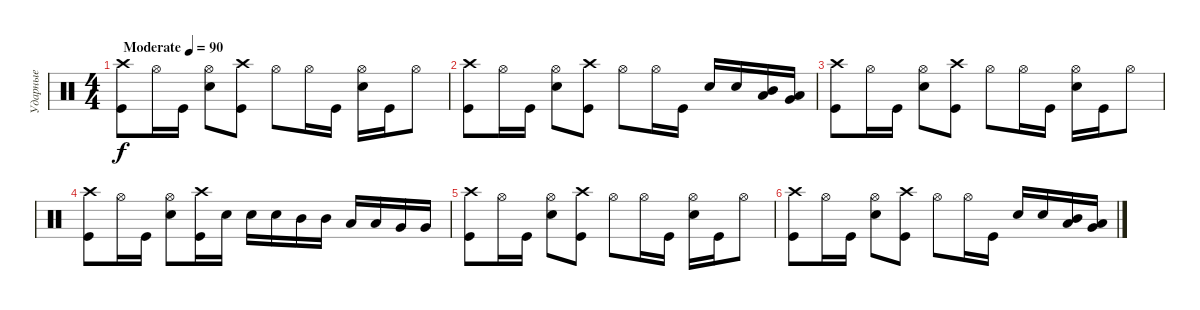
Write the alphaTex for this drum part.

\track ("Ударные" "Ударные") {instrument percussion}
\staff {score}
\articulation defaults
\ts (4 4)
\tempo (90 "Moderate")
\clef neutral
\ks c
("Kick (hit)" "Crash high (hit)").8{dy f} "Hi-Hat (open)".16 "Kick (hit)".16 ("Snare (hit) 2" "Hi-Hat (open)").8 ("Kick (hit)" "Crash high (hit)").8 "Hi-Hat (open)".8 "Hi-Hat (open)".16 "Kick (hit)".16 ("Snare (hit) 2" "Hi-Hat (open)").16 "Kick (hit)".16 "Hi-Hat (open)".8 |
("Kick (hit)" "Crash high (hit)").8 "Hi-Hat (open)".16 "Kick (hit)".16 ("Snare (hit) 2" "Hi-Hat (open)").8 ("Kick (hit)" "Crash high (hit)").8 "Hi-Hat (open)".8 "Hi-Hat (open)".16 "Kick (hit)".16 "Snare (hit) 2".16 "Snare (hit) 2".16 ("Mid Tom (hit)" "Low Tom (hit)").16 ("Low Tom (hit)" "Very Low Tom (hit)").16 |
("Kick (hit)" "Crash high (hit)").8 "Hi-Hat (open)".16 "Kick (hit)".16 ("Snare (hit) 2" "Hi-Hat (open)").8 ("Kick (hit)" "Crash high (hit)").8 "Hi-Hat (open)".8 "Hi-Hat (open)".16 "Kick (hit)".16 ("Snare (hit) 2" "Hi-Hat (open)").16 "Kick (hit)".16 "Hi-Hat (open)".8 |
("Kick (hit)" "Crash high (hit)").8 "Hi-Hat (open)".16 "Kick (hit)".16 ("Snare (hit) 2" "Hi-Hat (open)").8 ("Kick (hit)" "Crash high (hit)").16 "Snare (hit) 2".16 "Snare (hit) 2".16 "Snare (hit) 2".16 "Mid Tom (hit)".16 "Mid Tom (hit)".16 "Low Tom (hit)".16 "Low Tom (hit)".16 "Very Low Tom (hit)".16 "Very Low Tom (hit)".16 |
("Kick (hit)" "Crash high (hit)").8 "Hi-Hat (open)".16 "Kick (hit)".16 ("Snare (hit) 2" "Hi-Hat (open)").8 ("Kick (hit)" "Crash high (hit)").8 "Hi-Hat (open)".8 "Hi-Hat (open)".16 "Kick (hit)".16 ("Snare (hit) 2" "Hi-Hat (open)").16 "Kick (hit)".16 "Hi-Hat (open)".8 |
("Kick (hit)" "Crash high (hit)").8 "Hi-Hat (open)".16 "Kick (hit)".16 ("Snare (hit) 2" "Hi-Hat (open)").8 ("Kick (hit)" "Crash high (hit)").8 "Hi-Hat (open)".8 "Hi-Hat (open)".16 "Kick (hit)".16 "Snare (hit) 2".16 "Snare (hit) 2".16 ("Mid Tom (hit)" "Low Tom (hit)").16 ("Low Tom (hit)" "Very Low Tom (hit)").16
